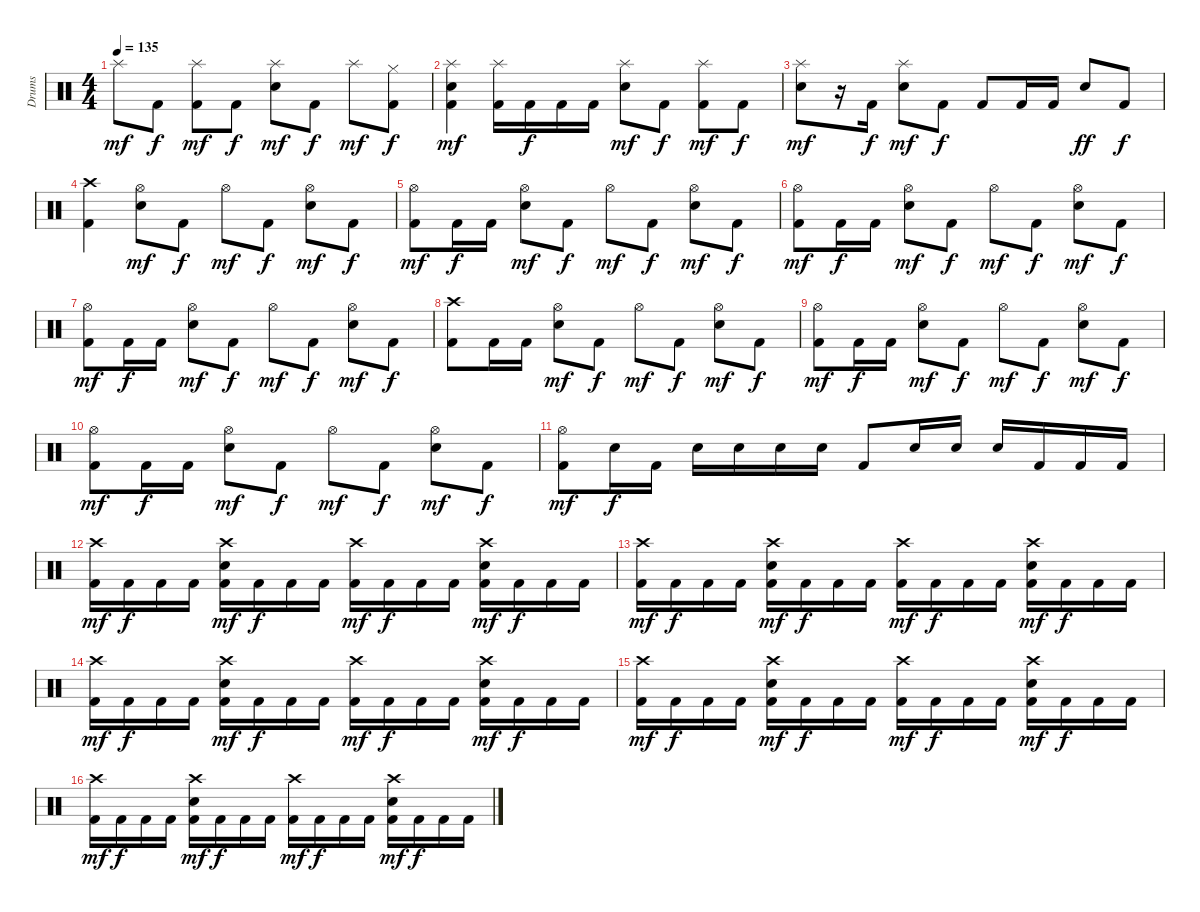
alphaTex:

\track ("Drums" "Drums") {instrument percussion}
\staff {score}
\articulation defaults
\ts (4 4)
\tempo 135
\clef neutral
\ks c "Splash (hit)".8{dy mf} "Kick (hit) 2".8{dy f}
("Kick (hit) 2" "Splash (hit)").8{dy mf} "Kick (hit) 2".8{dy f} ("Electric Snare (hit)" "Splash (hit)").8{dy mf} "Kick (hit) 2".8{dy f} "Splash (hit)".8{dy mf} ("Kick (hit) 2" "Hi-Hat (closed)").8{dy f} |
("Kick (hit) 2" "Electric Snare (hit)" "Splash (hit)").4{dy mf} ("Kick (hit) 2" "Splash (hit)").16 "Kick (hit) 2".16{dy f} "Kick (hit) 2".16 "Kick (hit) 2".16 ("Electric Snare (hit)" "Splash (hit)").8{dy mf} "Kick (hit) 2".8{dy f} ("Kick (hit) 2" "Splash (hit)").8{dy mf} "Kick (hit) 2".8{dy f} |
("Electric Snare (hit)" "Splash (hit)").8{dy mf} r.16 "Kick (hit) 2".16{dy f} ("Electric Snare (hit)" "Splash (hit)").8{dy mf} "Kick (hit) 2".8{dy f} "Kick (hit) 2".8 "Kick (hit) 2".16 "Kick (hit) 2".16 "Electric Snare (hit)".8{dy ff} "Kick (hit) 2".8{dy f} |
("Kick (hit) 2" "Crash high (hit)").4 ("Electric Snare (hit)" "Hi-Hat (open)").8{dy mf} "Kick (hit) 2".8{dy f} "Hi-Hat (open)".8{dy mf} "Kick (hit) 2".8{dy f} ("Electric Snare (hit)" "Hi-Hat (open)").8{dy mf} "Kick (hit) 2".8{dy f} |
("Kick (hit) 2" "Hi-Hat (open)").8{dy mf} "Kick (hit) 2".16{dy f} "Kick (hit) 2".16 ("Electric Snare (hit)" "Hi-Hat (open)").8{dy mf} "Kick (hit) 2".8{dy f} "Hi-Hat (open)".8{dy mf} "Kick (hit) 2".8{dy f} ("Electric Snare (hit)" "Hi-Hat (open)").8{dy mf} "Kick (hit) 2".8{dy f} |
("Kick (hit) 2" "Hi-Hat (open)").8{dy mf} "Kick (hit) 2".16{dy f} "Kick (hit) 2".16 ("Electric Snare (hit)" "Hi-Hat (open)").8{dy mf} "Kick (hit) 2".8{dy f} "Hi-Hat (open)".8{dy mf} "Kick (hit) 2".8{dy f} ("Electric Snare (hit)" "Hi-Hat (open)").8{dy mf} "Kick (hit) 2".8{dy f} |
("Kick (hit) 2" "Hi-Hat (open)").8{dy mf} "Kick (hit) 2".16{dy f} "Kick (hit) 2".16 ("Electric Snare (hit)" "Hi-Hat (open)").8{dy mf} "Kick (hit) 2".8{dy f} "Hi-Hat (open)".8{dy mf} "Kick (hit) 2".8{dy f} ("Electric Snare (hit)" "Hi-Hat (open)").8{dy mf} "Kick (hit) 2".8{dy f} |
("Kick (hit) 2" "Crash high (hit)").8 "Kick (hit) 2".16 "Kick (hit) 2".16 ("Electric Snare (hit)" "Hi-Hat (open)").8{dy mf} "Kick (hit) 2".8{dy f} "Hi-Hat (open)".8{dy mf} "Kick (hit) 2".8{dy f} ("Electric Snare (hit)" "Hi-Hat (open)").8{dy mf} "Kick (hit) 2".8{dy f} |
("Kick (hit) 2" "Hi-Hat (open)").8{dy mf} "Kick (hit) 2".16{dy f} "Kick (hit) 2".16 ("Electric Snare (hit)" "Hi-Hat (open)").8{dy mf} "Kick (hit) 2".8{dy f} "Hi-Hat (open)".8{dy mf} "Kick (hit) 2".8{dy f} ("Electric Snare (hit)" "Hi-Hat (open)").8{dy mf} "Kick (hit) 2".8{dy f} |
("Kick (hit) 2" "Hi-Hat (open)").8{dy mf} "Kick (hit) 2".16{dy f} "Kick (hit) 2".16 ("Electric Snare (hit)" "Hi-Hat (open)").8{dy mf} "Kick (hit) 2".8{dy f} "Hi-Hat (open)".8{dy mf} "Kick (hit) 2".8{dy f} ("Electric Snare (hit)" "Hi-Hat (open)").8{dy mf} "Kick (hit) 2".8{dy f} |
("Kick (hit) 2" "Hi-Hat (open)").8{dy mf} "Electric Snare (hit)".16{dy f} "Kick (hit) 2".16 "Electric Snare (hit)".16 "Electric Snare (hit)".16 "Electric Snare (hit)".16 "Electric Snare (hit)".16 "Kick (hit) 2".8 "Electric Snare (hit)".16 "Electric Snare (hit)".16 "Electric Snare (hit)".16 "Kick (hit) 2".16 "Kick (hit) 2".16 "Kick (hit) 2".16 |
("Kick (hit) 2" "Crash high (hit)").16{dy mf} "Kick (hit) 2".16{dy f} "Kick (hit) 2".16 "Kick (hit) 2".16 ("Kick (hit) 2" "Electric Snare (hit)" "Crash high (hit)").16{dy mf} "Kick (hit) 2".16{dy f} "Kick (hit) 2".16 "Kick (hit) 2".16 ("Kick (hit) 2" "Crash high (hit)").16{dy mf} "Kick (hit) 2".16{dy f} "Kick (hit) 2".16 "Kick (hit) 2".16 ("Kick (hit) 2" "Electric Snare (hit)" "Crash high (hit)").16{dy mf} "Kick (hit) 2".16{dy f} "Kick (hit) 2".16 "Kick (hit) 2".16 |
("Kick (hit) 2" "Crash high (hit)").16{dy mf} "Kick (hit) 2".16{dy f} "Kick (hit) 2".16 "Kick (hit) 2".16 ("Kick (hit) 2" "Electric Snare (hit)" "Crash high (hit)").16{dy mf} "Kick (hit) 2".16{dy f} "Kick (hit) 2".16 "Kick (hit) 2".16 ("Kick (hit) 2" "Crash high (hit)").16{dy mf} "Kick (hit) 2".16{dy f} "Kick (hit) 2".16 "Kick (hit) 2".16 ("Kick (hit) 2" "Electric Snare (hit)" "Crash high (hit)").16{dy mf} "Kick (hit) 2".16{dy f} "Kick (hit) 2".16 "Kick (hit) 2".16 |
("Kick (hit) 2" "Crash high (hit)").16{dy mf} "Kick (hit) 2".16{dy f} "Kick (hit) 2".16 "Kick (hit) 2".16 ("Kick (hit) 2" "Electric Snare (hit)" "Crash high (hit)").16{dy mf} "Kick (hit) 2".16{dy f} "Kick (hit) 2".16 "Kick (hit) 2".16 ("Kick (hit) 2" "Crash high (hit)").16{dy mf} "Kick (hit) 2".16{dy f} "Kick (hit) 2".16 "Kick (hit) 2".16 ("Kick (hit) 2" "Electric Snare (hit)" "Crash high (hit)").16{dy mf} "Kick (hit) 2".16{dy f} "Kick (hit) 2".16 "Kick (hit) 2".16 |
("Kick (hit) 2" "Crash high (hit)").16{dy mf} "Kick (hit) 2".16{dy f} "Kick (hit) 2".16 "Kick (hit) 2".16 ("Kick (hit) 2" "Electric Snare (hit)" "Crash high (hit)").16{dy mf} "Kick (hit) 2".16{dy f} "Kick (hit) 2".16 "Kick (hit) 2".16 ("Kick (hit) 2" "Crash high (hit)").16{dy mf} "Kick (hit) 2".16{dy f} "Kick (hit) 2".16 "Kick (hit) 2".16 ("Kick (hit) 2" "Electric Snare (hit)" "Crash high (hit)").16{dy mf} "Kick (hit) 2".16{dy f} "Kick (hit) 2".16 "Kick (hit) 2".16 |
("Kick (hit) 2" "Crash high (hit)").16{dy mf} "Kick (hit) 2".16{dy f} "Kick (hit) 2".16 "Kick (hit) 2".16 ("Kick (hit) 2" "Electric Snare (hit)" "Crash high (hit)").16{dy mf} "Kick (hit) 2".16{dy f} "Kick (hit) 2".16 "Kick (hit) 2".16 ("Kick (hit) 2" "Crash high (hit)").16{dy mf} "Kick (hit) 2".16{dy f} "Kick (hit) 2".16 "Kick (hit) 2".16 ("Kick (hit) 2" "Electric Snare (hit)" "Crash high (hit)").16{dy mf} "Kick (hit) 2".16{dy f} "Kick (hit) 2".16 "Kick (hit) 2".16
